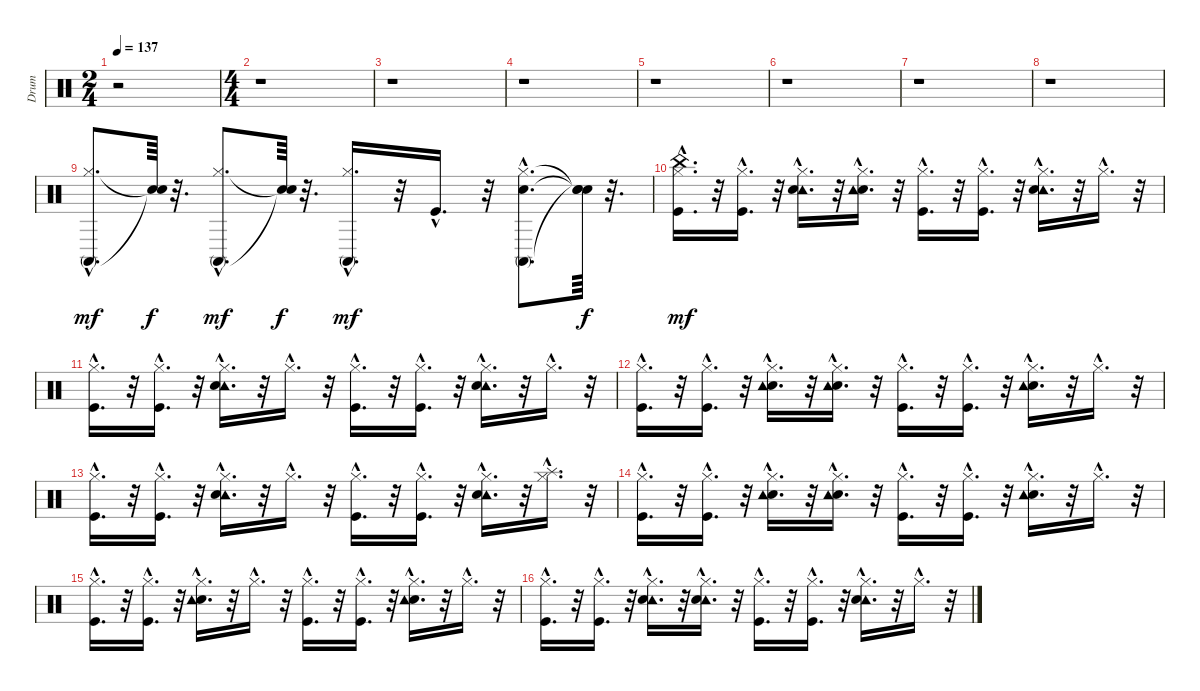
\track ("Drum" "Drum") {instrument percussion}
\staff {score}
\articulation defaults
\ts (2 4)
\tempo 137
\clef neutral
\ks c
r.2{dy mf} |
\ts (4 4)
r.1 |
r.1 |
r.1 |
r.1 |
r.1 |
r.1 |
r.1 |
("Hi-Hat (closed)"{hac} "Conga high (mute)"{hac}).8{d} ("Snare (hit)"{t} "Snare (hit)"{t}).64{dy f} r.32{d} ("Hi-Hat (closed)"{hac} "Conga high (mute)"{hac}).8{d dy mf} ("Snare (hit)"{t} "Snare (hit)"{t}).64{dy f} r.32{d} ("Hi-Hat (closed)"{hac} "Conga high (mute)"{hac}).16{d dy mf} r.32 "Kick (hit)"{hac}.16{d} r.32 ("Hi-Hat (closed)"{hac} "Snare (hit) 2"{hac} "Conga high (mute)"{hac}).8{d} ("Snare (hit)"{t} "Snare (hit)"{t} "Snare (hit)"{t}).64{dy f} r.32{d} |
("Hi-Hat (closed)"{hac} "China (hit)"{hac} "Kick (hit)"{hac}).16{d dy mf} r.32 ("Hi-Hat (closed)"{hac} "Kick (hit)"{hac}).16{d} r.32 ("Tambourine (hit)"{hac} "Hi-Hat (closed)"{hac} "Snare (hit) 2"{hac}).16{d} r.32 ("Snare (hit) 2"{hac} "Tambourine (hit)"{hac} "Hi-Hat (closed)"{hac}).16{d} r.32 ("Hi-Hat (closed)"{hac} "Kick (hit)"{hac}).16{d} r.32 ("Kick (hit)"{hac} "Hi-Hat (closed)"{hac}).16{d} r.32 ("Tambourine (hit)"{hac} "Hi-Hat (closed)"{hac} "Snare (hit) 2"{hac}).16{d} r.32 "Hi-Hat (closed)"{hac}.16{d} r.32 |
("Hi-Hat (closed)"{hac} "Kick (hit)"{hac}).16{d} r.32 ("Hi-Hat (closed)"{hac} "Kick (hit)"{hac}).16{d} r.32 ("Tambourine (hit)"{hac} "Hi-Hat (closed)"{hac} "Snare (hit) 2"{hac}).16{d} r.32 "Hi-Hat (closed)"{hac}.16{d} r.32 ("Hi-Hat (closed)"{hac} "Kick (hit)"{hac}).16{d} r.32 ("Hi-Hat (closed)"{hac} "Kick (hit)"{hac}).16{d} r.32 ("Tambourine (hit)"{hac} "Hi-Hat (closed)"{hac} "Snare (hit) 2"{hac}).16{d} r.32 "Hi-Hat (closed)"{hac}.16{d} r.32 |
("Hi-Hat (closed)"{hac} "Kick (hit)"{hac}).16{d} r.32 ("Hi-Hat (closed)"{hac} "Kick (hit)"{hac}).16{d} r.32 ("Snare (hit) 2"{hac} "Hi-Hat (closed)"{hac} "Tambourine (hit)"{hac}).16{d} r.32 ("Snare (hit) 2"{hac} "Hi-Hat (closed)"{hac} "Tambourine (hit)"{hac}).16{d} r.32 ("Hi-Hat (closed)"{hac} "Kick (hit)"{hac}).16{d} r.32 ("Hi-Hat (closed)"{hac} "Kick (hit)"{hac}).16{d} r.32 ("Snare (hit) 2"{hac} "Hi-Hat (closed)"{hac} "Tambourine (hit)"{hac}).16{d} r.32 "Hi-Hat (closed)"{hac}.16{d} r.32 |
("Kick (hit)"{hac} "Hi-Hat (closed)"{hac}).16{d} r.32 ("Kick (hit)"{hac} "Hi-Hat (closed)"{hac}).16{d} r.32 ("Hi-Hat (closed)"{hac} "Tambourine (hit)"{hac} "Snare (hit) 2"{hac}).16{d} r.32 "Hi-Hat (closed)"{hac}.16{d} r.32 ("Hi-Hat (closed)"{hac} "Kick (hit)"{hac}).16{d} r.32 ("Kick (hit)"{hac} "Hi-Hat (closed)"{hac}).16{d} r.32 ("Hi-Hat (closed)"{hac} "Tambourine (hit)"{hac} "Snare (hit) 2"{hac}).16{d} r.32 ("Splash (hit)"{hac} "Hi-Hat (closed)"{hac}).16{d} r.32 |
("Kick (hit)"{hac} "Hi-Hat (closed)"{hac}).16{d} r.32 ("Kick (hit)"{hac} "Hi-Hat (closed)"{hac}).16{d} r.32 ("Snare (hit) 2"{hac} "Hi-Hat (closed)"{hac} "Tambourine (hit)"{hac}).16{d} r.32 ("Snare (hit) 2"{hac} "Hi-Hat (closed)"{hac} "Tambourine (hit)"{hac}).16{d} r.32 ("Kick (hit)"{hac} "Hi-Hat (closed)"{hac}).16{d} r.32 ("Kick (hit)"{hac} "Hi-Hat (closed)"{hac}).16{d} r.32 ("Snare (hit) 2"{hac} "Hi-Hat (closed)"{hac} "Tambourine (hit)"{hac}).16{d} r.32 "Hi-Hat (closed)"{hac}.16{d} r.32 |
("Kick (hit)"{hac} "Hi-Hat (closed)"{hac}).16{d} r.32 ("Kick (hit)"{hac} "Hi-Hat (closed)"{hac}).16{d} r.32 ("Snare (hit) 2"{hac} "Hi-Hat (closed)"{hac} "Tambourine (hit)"{hac}).16{d} r.32 "Hi-Hat (closed)"{hac}.16{d} r.32 ("Kick (hit)"{hac} "Hi-Hat (closed)"{hac}).16{d} r.32 ("Kick (hit)"{hac} "Hi-Hat (closed)"{hac}).16{d} r.32 ("Snare (hit) 2"{hac} "Hi-Hat (closed)"{hac} "Tambourine (hit)"{hac}).16{d} r.32 "Hi-Hat (closed)"{hac}.16{d} r.32 |
("Hi-Hat (closed)"{hac} "Kick (hit)"{hac}).16{d} r.32 ("Hi-Hat (closed)"{hac} "Kick (hit)"{hac}).16{d} r.32 ("Tambourine (hit)"{hac} "Hi-Hat (closed)"{hac} "Snare (hit) 2"{hac}).16{d} r.32 ("Tambourine (hit)"{hac} "Hi-Hat (closed)"{hac} "Snare (hit) 2"{hac}).16{d} r.32 ("Hi-Hat (closed)"{hac} "Kick (hit)"{hac}).16{d} r.32 ("Hi-Hat (closed)"{hac} "Kick (hit)"{hac}).16{d} r.32 ("Tambourine (hit)"{hac} "Hi-Hat (closed)"{hac} "Snare (hit) 2"{hac}).16{d} r.32 "Hi-Hat (closed)"{hac}.16{d} r.32
